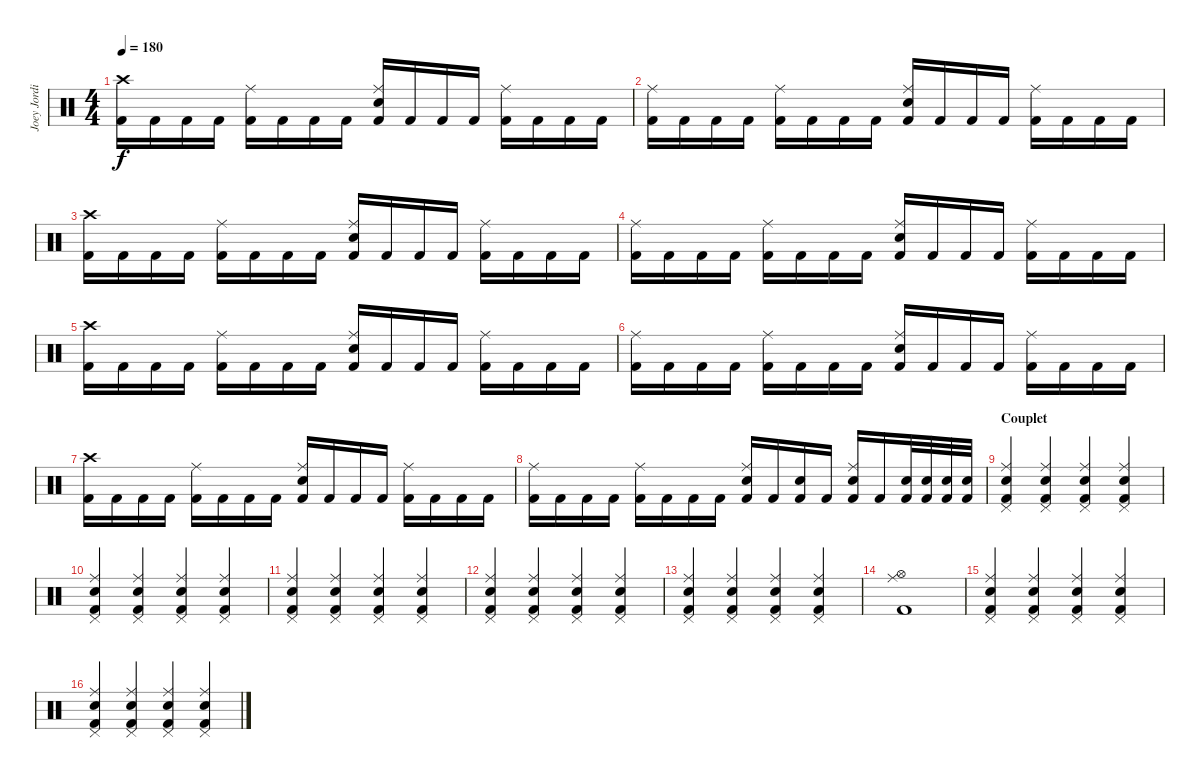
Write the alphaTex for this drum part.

\track ("Joey Jordison" "Joey Jordi") {instrument percussion}
\staff {score}
\articulation defaults
\ts (4 4)
\tempo 180
\clef neutral
\ks c
("Crash high (hit)" "Kick (hit) 2").16{dy f} "Kick (hit) 2".16 "Kick (hit) 2".16 "Kick (hit) 2".16 ("Ride (middle)" "Kick (hit) 2").16 "Kick (hit) 2".16 "Kick (hit) 2".16 "Kick (hit) 2".16 ("Ride (middle)" "Electric Snare (hit)" "Kick (hit) 2").16 "Kick (hit) 2".16 "Kick (hit) 2".16 "Kick (hit) 2".16 ("Ride (middle)" "Kick (hit) 2").16 "Kick (hit) 2".16 "Kick (hit) 2".16 "Kick (hit) 2".16 |
("Ride (middle)" "Kick (hit) 2").16 "Kick (hit) 2".16 "Kick (hit) 2".16 "Kick (hit) 2".16 ("Ride (middle)" "Kick (hit) 2").16 "Kick (hit) 2".16 "Kick (hit) 2".16 "Kick (hit) 2".16 ("Ride (middle)" "Electric Snare (hit)" "Kick (hit) 2").16 "Kick (hit) 2".16 "Kick (hit) 2".16 "Kick (hit) 2".16 ("Ride (middle)" "Kick (hit) 2").16 "Kick (hit) 2".16 "Kick (hit) 2".16 "Kick (hit) 2".16 |
("Crash high (hit)" "Kick (hit) 2").16 "Kick (hit) 2".16 "Kick (hit) 2".16 "Kick (hit) 2".16 ("Ride (middle)" "Kick (hit) 2").16 "Kick (hit) 2".16 "Kick (hit) 2".16 "Kick (hit) 2".16 ("Ride (middle)" "Electric Snare (hit)" "Kick (hit) 2").16 "Kick (hit) 2".16 "Kick (hit) 2".16 "Kick (hit) 2".16 ("Ride (middle)" "Kick (hit) 2").16 "Kick (hit) 2".16 "Kick (hit) 2".16 "Kick (hit) 2".16 |
("Ride (middle)" "Kick (hit) 2").16 "Kick (hit) 2".16 "Kick (hit) 2".16 "Kick (hit) 2".16 ("Ride (middle)" "Kick (hit) 2").16 "Kick (hit) 2".16 "Kick (hit) 2".16 "Kick (hit) 2".16 ("Ride (middle)" "Electric Snare (hit)" "Kick (hit) 2").16 "Kick (hit) 2".16 "Kick (hit) 2".16 "Kick (hit) 2".16 ("Ride (middle)" "Kick (hit) 2").16 "Kick (hit) 2".16 "Kick (hit) 2".16 "Kick (hit) 2".16 |
("Crash high (hit)" "Kick (hit) 2").16 "Kick (hit) 2".16 "Kick (hit) 2".16 "Kick (hit) 2".16 ("Ride (middle)" "Kick (hit) 2").16 "Kick (hit) 2".16 "Kick (hit) 2".16 "Kick (hit) 2".16 ("Ride (middle)" "Electric Snare (hit)" "Kick (hit) 2").16 "Kick (hit) 2".16 "Kick (hit) 2".16 "Kick (hit) 2".16 ("Ride (middle)" "Kick (hit) 2").16 "Kick (hit) 2".16 "Kick (hit) 2".16 "Kick (hit) 2".16 |
("Ride (middle)" "Kick (hit) 2").16 "Kick (hit) 2".16 "Kick (hit) 2".16 "Kick (hit) 2".16 ("Ride (middle)" "Kick (hit) 2").16 "Kick (hit) 2".16 "Kick (hit) 2".16 "Kick (hit) 2".16 ("Ride (middle)" "Electric Snare (hit)" "Kick (hit) 2").16 "Kick (hit) 2".16 "Kick (hit) 2".16 "Kick (hit) 2".16 ("Ride (middle)" "Kick (hit) 2").16 "Kick (hit) 2".16 "Kick (hit) 2".16 "Kick (hit) 2".16 |
("Crash high (hit)" "Kick (hit) 2").16 "Kick (hit) 2".16 "Kick (hit) 2".16 "Kick (hit) 2".16 ("Ride (middle)" "Kick (hit) 2").16 "Kick (hit) 2".16 "Kick (hit) 2".16 "Kick (hit) 2".16 ("Ride (middle)" "Electric Snare (hit)" "Kick (hit) 2").16 "Kick (hit) 2".16 "Kick (hit) 2".16 "Kick (hit) 2".16 ("Ride (middle)" "Kick (hit) 2").16 "Kick (hit) 2".16 "Kick (hit) 2".16 "Kick (hit) 2".16 |
("Ride (middle)" "Kick (hit) 2").16 "Kick (hit) 2".16 "Kick (hit) 2".16 "Kick (hit) 2".16 ("Ride (middle)" "Kick (hit) 2").16 "Kick (hit) 2".16 "Kick (hit) 2".16 "Kick (hit) 2".16 ("Ride (middle)" "Electric Snare (hit)" "Kick (hit) 2").16 "Kick (hit) 2".16 ("Electric Snare (hit)" "Kick (hit) 2").16 "Kick (hit) 2".16 ("Ride (middle)" "Electric Snare (hit)" "Kick (hit) 2").16 "Kick (hit) 2".16 ("Electric Snare (hit)" "Kick (hit) 2").32 ("Electric Snare (hit)" "Kick (hit) 2").32 ("Electric Snare (hit)" "Kick (hit) 2").32 ("Electric Snare (hit)" "Kick (hit) 2").32 |
\section ("" "Couplet")
("Ride (middle)" "Pedal Hi-Hat (hit)" "Kick (hit) 2" "Electric Snare (hit)").4 ("Ride (middle)" "Pedal Hi-Hat (hit)" "Kick (hit) 2" "Electric Snare (hit)").4 ("Ride (middle)" "Pedal Hi-Hat (hit)" "Kick (hit) 2" "Electric Snare (hit)").4 ("Ride (middle)" "Pedal Hi-Hat (hit)" "Kick (hit) 2" "Electric Snare (hit)").4 |
("Ride (middle)" "Pedal Hi-Hat (hit)" "Kick (hit) 2" "Electric Snare (hit)").4 ("Ride (middle)" "Pedal Hi-Hat (hit)" "Kick (hit) 2" "Electric Snare (hit)").4 ("Ride (middle)" "Pedal Hi-Hat (hit)" "Kick (hit) 2" "Electric Snare (hit)").4 ("Ride (middle)" "Pedal Hi-Hat (hit)" "Kick (hit) 2" "Electric Snare (hit)").4 |
("Ride (middle)" "Pedal Hi-Hat (hit)" "Kick (hit) 2" "Electric Snare (hit)").4 ("Ride (middle)" "Pedal Hi-Hat (hit)" "Kick (hit) 2" "Electric Snare (hit)").4 ("Ride (middle)" "Pedal Hi-Hat (hit)" "Kick (hit) 2" "Electric Snare (hit)").4 ("Ride (middle)" "Pedal Hi-Hat (hit)" "Kick (hit) 2" "Electric Snare (hit)").4 |
("Ride (middle)" "Pedal Hi-Hat (hit)" "Kick (hit) 2" "Electric Snare (hit)").4 ("Ride (middle)" "Pedal Hi-Hat (hit)" "Kick (hit) 2" "Electric Snare (hit)").4 ("Ride (middle)" "Pedal Hi-Hat (hit)" "Kick (hit) 2" "Electric Snare (hit)").4 ("Ride (middle)" "Pedal Hi-Hat (hit)" "Kick (hit) 2" "Electric Snare (hit)").4 |
("Ride (middle)" "Pedal Hi-Hat (hit)" "Kick (hit) 2" "Electric Snare (hit)").4 ("Ride (middle)" "Pedal Hi-Hat (hit)" "Kick (hit) 2" "Electric Snare (hit)").4 ("Ride (middle)" "Pedal Hi-Hat (hit)" "Kick (hit) 2" "Electric Snare (hit)").4 ("Ride (middle)" "Pedal Hi-Hat (hit)" "Kick (hit) 2" "Electric Snare (hit)").4 |
("Hi-Hat (open)" "Ride (middle)" "Kick (hit) 2").1 |
("Ride (middle)" "Pedal Hi-Hat (hit)" "Kick (hit) 2" "Electric Snare (hit)").4 ("Ride (middle)" "Pedal Hi-Hat (hit)" "Kick (hit) 2" "Electric Snare (hit)").4 ("Ride (middle)" "Pedal Hi-Hat (hit)" "Kick (hit) 2" "Electric Snare (hit)").4 ("Ride (middle)" "Pedal Hi-Hat (hit)" "Kick (hit) 2" "Electric Snare (hit)").4 |
("Ride (middle)" "Pedal Hi-Hat (hit)" "Kick (hit) 2" "Electric Snare (hit)").4 ("Ride (middle)" "Pedal Hi-Hat (hit)" "Kick (hit) 2" "Electric Snare (hit)").4 ("Ride (middle)" "Pedal Hi-Hat (hit)" "Kick (hit) 2" "Electric Snare (hit)").4 ("Ride (middle)" "Pedal Hi-Hat (hit)" "Kick (hit) 2" "Electric Snare (hit)").4
